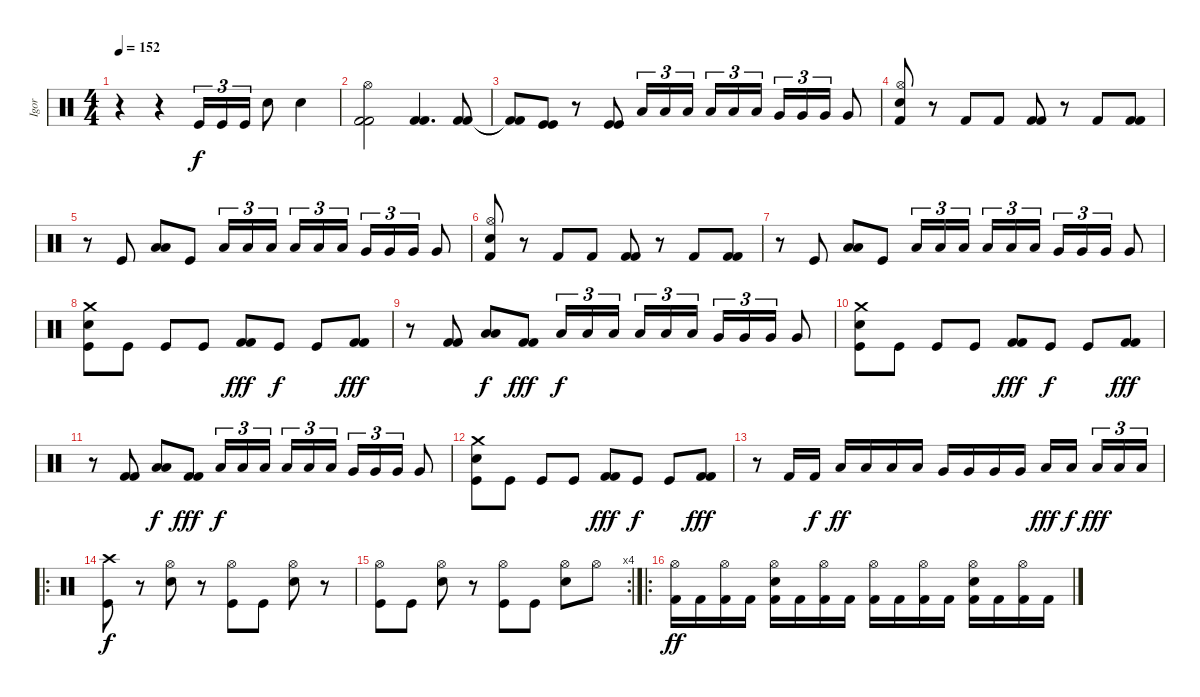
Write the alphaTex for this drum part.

\track ("Igor" "Igor") {instrument percussion}
\staff {score}
\articulation defaults
\ts (4 4)
\tempo 152
\clef neutral
\ks c
r.4{dy f} r.4 "Kick (hit)".16{tu (3 2)} "Kick (hit)".16{tu (3 2)} "Kick (hit)".16{tu (3 2)} "Snare (hit) 2".8 "Snare (hit) 2".4 |
("Hi-Hat (open)" "Kick (hit) 2" "Kick (hit) 2").2 ("Kick (hit) 2" "Kick (hit) 2").4{d} ("Kick (hit) 2" "Kick (hit) 2").8 |
("Kick (hit) 2"{t} "Kick (hit) 2"{t}).8 ("Kick (hit)" "Kick (hit)").8 r.8 ("Kick (hit)" "Kick (hit)").8 "Low Tom (hit)".16{tu (3 2)} "Low Tom (hit)".16{tu (3 2)} "Low Tom (hit)".16{tu (3 2)} "Low Tom (hit)".16{tu (3 2)} "Low Tom (hit)".16{tu (3 2)} "Low Tom (hit)".16{tu (3 2)} "Very Low Tom (hit)".16{tu (3 2)} "Very Low Tom (hit)".16{tu (3 2)} "Very Low Tom (hit)".16{tu (3 2)} "Very Low Tom (hit)".8 |
("Hi-Hat (open)" "Kick (hit) 2" "Snare (hit) 2").8 r.8 "Kick (hit) 2".8 "Kick (hit) 2".8 ("Kick (hit) 2" "Kick (hit) 2").8 r.8 "Kick (hit) 2".8 ("Kick (hit) 2" "Kick (hit) 2").8 |
r.8 "Kick (hit)".8 ("Low Floor Tom (hit)" "Low Floor Tom (hit)").8 "Kick (hit)".8 "Low Tom (hit)".16{tu (3 2)} "Low Tom (hit)".16{tu (3 2)} "Low Tom (hit)".16{tu (3 2)} "Low Tom (hit)".16{tu (3 2)} "Low Tom (hit)".16{tu (3 2)} "Low Tom (hit)".16{tu (3 2)} "Very Low Tom (hit)".16{tu (3 2)} "Very Low Tom (hit)".16{tu (3 2)} "Very Low Tom (hit)".16{tu (3 2)} "Very Low Tom (hit)".8 |
("Hi-Hat (open)" "Kick (hit) 2" "Snare (hit) 2").8 r.8 "Kick (hit) 2".8 "Kick (hit) 2".8 ("Kick (hit) 2" "Kick (hit) 2").8 r.8 "Kick (hit) 2".8 ("Kick (hit) 2" "Kick (hit) 2").8 |
r.8 "Kick (hit)".8 ("Low Floor Tom (hit)" "Low Floor Tom (hit)").8 "Kick (hit)".8 "Low Tom (hit)".16{tu (3 2)} "Low Tom (hit)".16{tu (3 2)} "Low Tom (hit)".16{tu (3 2)} "Low Tom (hit)".16{tu (3 2)} "Low Tom (hit)".16{tu (3 2)} "Low Tom (hit)".16{tu (3 2)} "Very Low Tom (hit)".16{tu (3 2)} "Very Low Tom (hit)".16{tu (3 2)} "Very Low Tom (hit)".16{tu (3 2)} "Very Low Tom (hit)".8 |
("Crash medium (hit)" "Kick (hit)" "Snare (hit) 2").8 "Kick (hit)".8 "Kick (hit)".8 "Kick (hit)".8 ("Kick (hit) 2" "Kick (hit) 2").8{dy fff} "Kick (hit)".8{dy f} "Kick (hit)".8 ("Kick (hit) 2" "Kick (hit) 2").8{dy fff} |
r.8 ("Kick (hit) 2" "Kick (hit) 2").8 ("Low Floor Tom (hit)" "Low Floor Tom (hit)").8{dy f} ("Kick (hit) 2" "Kick (hit) 2").8{dy fff} "Low Tom (hit)".16{tu (3 2) dy f} "Low Tom (hit)".16{tu (3 2)} "Low Tom (hit)".16{tu (3 2)} "Low Tom (hit)".16{tu (3 2)} "Low Tom (hit)".16{tu (3 2)} "Low Tom (hit)".16{tu (3 2)} "Very Low Tom (hit)".16{tu (3 2)} "Very Low Tom (hit)".16{tu (3 2)} "Very Low Tom (hit)".16{tu (3 2)} "Very Low Tom (hit)".8 |
("Crash medium (hit)" "Kick (hit)" "Snare (hit) 2").8 "Kick (hit)".8 "Kick (hit)".8 "Kick (hit)".8 ("Kick (hit) 2" "Kick (hit) 2").8{dy fff} "Kick (hit)".8{dy f} "Kick (hit)".8 ("Kick (hit) 2" "Kick (hit) 2").8{dy fff} |
r.8 ("Kick (hit) 2" "Kick (hit) 2").8 ("Low Floor Tom (hit)" "Low Floor Tom (hit)").8{dy f} ("Kick (hit) 2" "Kick (hit) 2").8{dy fff} "Low Tom (hit)".16{tu (3 2) dy f} "Low Tom (hit)".16{tu (3 2)} "Low Tom (hit)".16{tu (3 2)} "Low Tom (hit)".16{tu (3 2)} "Low Tom (hit)".16{tu (3 2)} "Low Tom (hit)".16{tu (3 2)} "Very Low Tom (hit)".16{tu (3 2)} "Very Low Tom (hit)".16{tu (3 2)} "Very Low Tom (hit)".16{tu (3 2)} "Very Low Tom (hit)".8 |
("Crash medium (hit)" "Kick (hit)" "Snare (hit) 2").8 "Kick (hit)".8 "Kick (hit)".8 "Kick (hit)".8 ("Kick (hit) 2" "Kick (hit) 2").8{dy fff} "Kick (hit)".8{dy f} "Kick (hit)".8 ("Kick (hit) 2" "Kick (hit) 2").8{dy fff} |
r.8 "Kick (hit) 2".16 "Kick (hit) 2".16{dy f} "Low Tom (hit)".16{dy ff} "Low Tom (hit)".16 "Low Tom (hit)".16 "Low Tom (hit)".16 "Very Low Tom (hit)".16 "Very Low Tom (hit)".16 "Very Low Tom (hit)".16 "Very Low Tom (hit)".16 "Low Floor Tom (hit)".16{dy fff} "Low Floor Tom (hit)".16{dy f} "Low Floor Tom (hit)".16{tu (3 2) dy fff} "Low Floor Tom (hit)".16{tu (3 2)} "Low Floor Tom (hit)".16{tu (3 2)} |
\ro
("Crash high (hit)" "Kick (hit)").8{dy f} r.8 ("Hi-Hat (open)" "Snare (hit) 2").8 r.8 ("Hi-Hat (open)" "Kick (hit)").8 "Kick (hit)".8 ("Hi-Hat (open)" "Snare (hit) 2").8 r.8 |
\rc 4
("Hi-Hat (open)" "Kick (hit)").8 "Kick (hit)".8 ("Hi-Hat (open)" "Snare (hit) 2").8 r.8 ("Hi-Hat (open)" "Kick (hit)").8 "Kick (hit)".8 ("Hi-Hat (open)" "Snare (hit) 2").8 "Hi-Hat (open)".8 |
\ro
("Hi-Hat (open)" "Kick (hit) 2").16{dy ff} "Kick (hit) 2".16 ("Hi-Hat (open)" "Kick (hit) 2").16 "Kick (hit) 2".16 ("Hi-Hat (open)" "Snare (hit) 2" "Kick (hit) 2").16 "Kick (hit) 2".16 ("Hi-Hat (open)" "Kick (hit) 2").16 "Kick (hit) 2".16 ("Hi-Hat (open)" "Kick (hit) 2").16 "Kick (hit) 2".16 ("Hi-Hat (open)" "Kick (hit) 2").16 "Kick (hit) 2".16 ("Hi-Hat (open)" "Snare (hit) 2" "Kick (hit) 2").16 "Kick (hit) 2".16 ("Hi-Hat (open)" "Kick (hit) 2").16 "Kick (hit) 2".16
